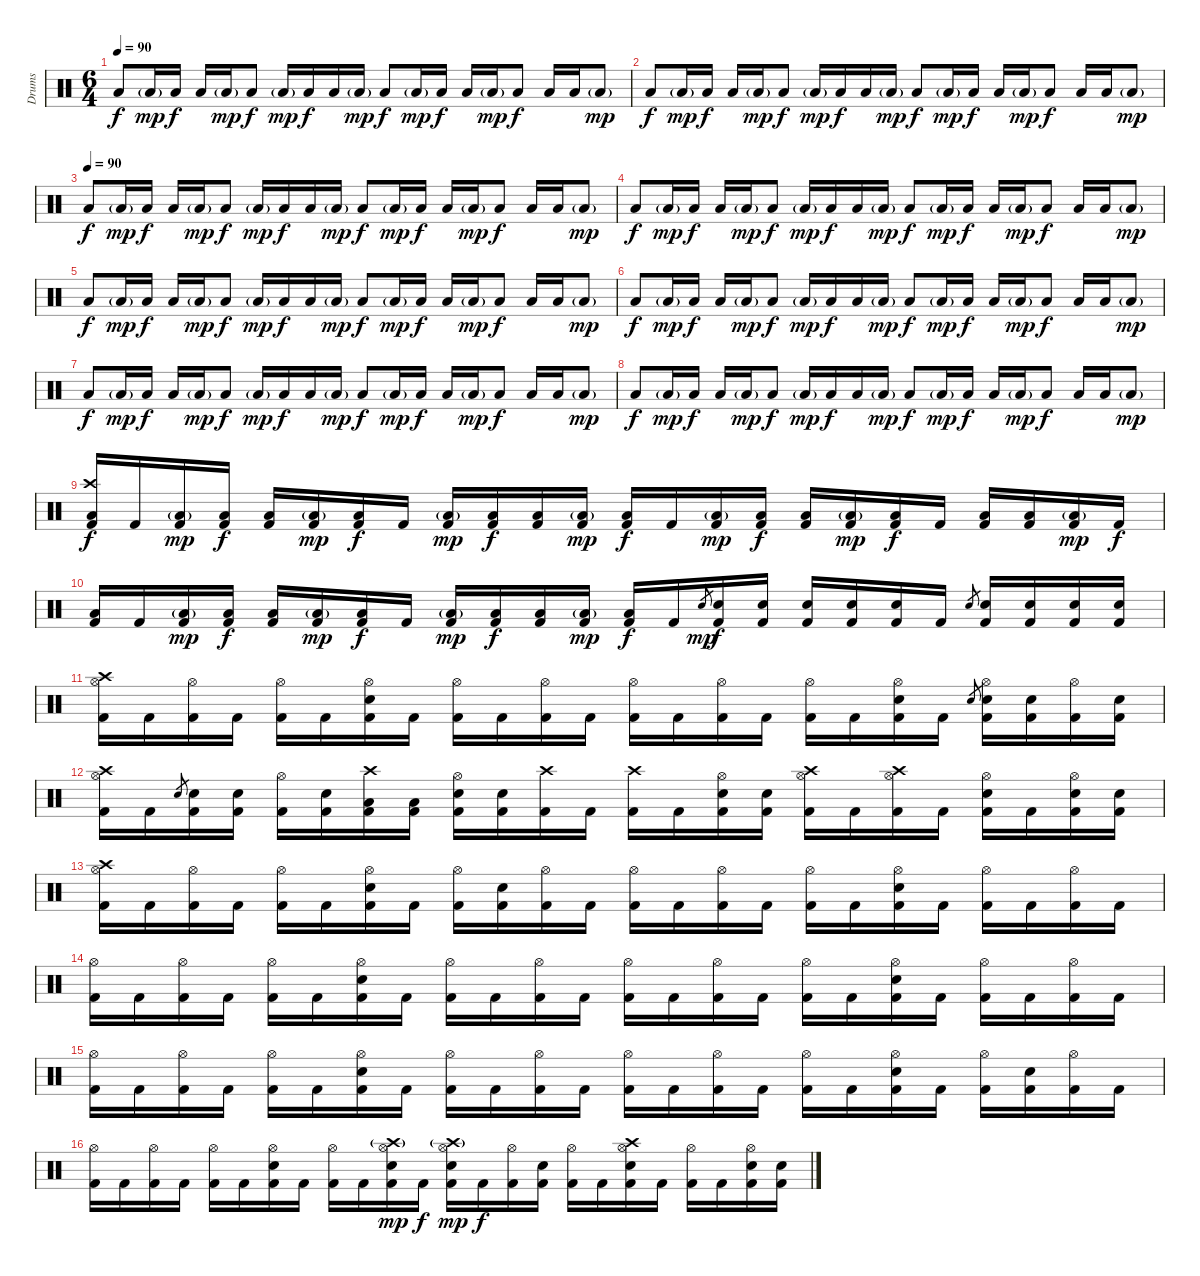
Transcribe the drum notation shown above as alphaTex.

\track ("Drums" "Drums") {instrument percussion}
\staff {score}
\articulation defaults
\ts (6 4)
\tempo 90
\clef neutral
\ks c "Low Floor Tom (hit)".8{dy f} "Low Tom (hit)"{g}.16{dy mp} "Low Floor Tom (hit)".16{dy f} "Low Tom (hit)".16 "Low Floor Tom (hit)"{g}.16{dy mp} "Low Floor Tom (hit)".8{dy f} "Low Tom (hit)"{g}.16{dy mp} "Low Floor Tom (hit)".16{dy f} "Low Tom (hit)".16 "Low Floor Tom (hit)"{g}.16{dy mp} "Low Floor Tom (hit)".8{dy f} "Low Tom (hit)"{g}.16{dy mp} "Low Floor Tom (hit)".16{dy f} "Low Tom (hit)".16 "Low Floor Tom (hit)"{g}.16{dy mp} "Low Floor Tom (hit)".8{dy f} "Low Tom (hit)".16 "Low Floor Tom (hit)".16 "Low Tom (hit)"{g}.8{dy mp}
|
"Low Floor Tom (hit)".8{dy f} "Low Tom (hit)"{g}.16{dy mp} "Low Floor Tom (hit)".16{dy f} "Low Tom (hit)".16 "Low Floor Tom (hit)"{g}.16{dy mp} "Low Floor Tom (hit)".8{dy f} "Low Tom (hit)"{g}.16{dy mp} "Low Floor Tom (hit)".16{dy f} "Low Tom (hit)".16 "Low Floor Tom (hit)"{g}.16{dy mp} "Low Floor Tom (hit)".8{dy f} "Low Tom (hit)"{g}.16{dy mp} "Low Floor Tom (hit)".16{dy f} "Low Tom (hit)".16 "Low Floor Tom (hit)"{g}.16{dy mp} "Low Floor Tom (hit)".8{dy f} "Low Tom (hit)".16 "Low Floor Tom (hit)".16 "Low Tom (hit)"{g}.8{dy mp} |
\tempo (90)
"Low Floor Tom (hit)".8{dy f} "Low Tom (hit)"{g}.16{dy mp} "Low Floor Tom (hit)".16{dy f} "Low Tom (hit)".16 "Low Floor Tom (hit)"{g}.16{dy mp} "Low Floor Tom (hit)".8{dy f} "Low Tom (hit)"{g}.16{dy mp} "Low Floor Tom (hit)".16{dy f} "Low Tom (hit)".16 "Low Floor Tom (hit)"{g}.16{dy mp} "Low Floor Tom (hit)".8{dy f} "Low Tom (hit)"{g}.16{dy mp} "Low Floor Tom (hit)".16{dy f} "Low Tom (hit)".16 "Low Floor Tom (hit)"{g}.16{dy mp} "Low Floor Tom (hit)".8{dy f} "Low Tom (hit)".16 "Low Floor Tom (hit)".16 "Low Tom (hit)"{g}.8{dy mp} |
"Low Floor Tom (hit)".8{dy f} "Low Tom (hit)"{g}.16{dy mp} "Low Floor Tom (hit)".16{dy f} "Low Tom (hit)".16 "Low Floor Tom (hit)"{g}.16{dy mp} "Low Floor Tom (hit)".8{dy f} "Low Tom (hit)"{g}.16{dy mp} "Low Floor Tom (hit)".16{dy f} "Low Tom (hit)".16 "Low Floor Tom (hit)"{g}.16{dy mp} "Low Floor Tom (hit)".8{dy f} "Low Tom (hit)"{g}.16{dy mp} "Low Floor Tom (hit)".16{dy f} "Low Tom (hit)".16 "Low Floor Tom (hit)"{g}.16{dy mp} "Low Floor Tom (hit)".8{dy f} "Low Tom (hit)".16 "Low Floor Tom (hit)".16 "Low Tom (hit)"{g}.8{dy mp} |
"Low Floor Tom (hit)".8{dy f} "Low Tom (hit)"{g}.16{dy mp} "Low Floor Tom (hit)".16{dy f} "Low Tom (hit)".16 "Low Floor Tom (hit)"{g}.16{dy mp} "Low Floor Tom (hit)".8{dy f} "Low Tom (hit)"{g}.16{dy mp} "Low Floor Tom (hit)".16{dy f} "Low Tom (hit)".16 "Low Floor Tom (hit)"{g}.16{dy mp} "Low Floor Tom (hit)".8{dy f} "Low Tom (hit)"{g}.16{dy mp} "Low Floor Tom (hit)".16{dy f} "Low Tom (hit)".16 "Low Floor Tom (hit)"{g}.16{dy mp} "Low Floor Tom (hit)".8{dy f} "Low Tom (hit)".16 "Low Floor Tom (hit)".16 "Low Tom (hit)"{g}.8{dy mp} |
"Low Floor Tom (hit)".8{dy f} "Low Tom (hit)"{g}.16{dy mp} "Low Floor Tom (hit)".16{dy f} "Low Tom (hit)".16 "Low Floor Tom (hit)"{g}.16{dy mp} "Low Floor Tom (hit)".8{dy f} "Low Tom (hit)"{g}.16{dy mp} "Low Floor Tom (hit)".16{dy f} "Low Tom (hit)".16 "Low Floor Tom (hit)"{g}.16{dy mp} "Low Floor Tom (hit)".8{dy f} "Low Tom (hit)"{g}.16{dy mp} "Low Floor Tom (hit)".16{dy f} "Low Tom (hit)".16 "Low Floor Tom (hit)"{g}.16{dy mp} "Low Floor Tom (hit)".8{dy f} "Low Tom (hit)".16 "Low Floor Tom (hit)".16 "Low Tom (hit)"{g}.8{dy mp} |
"Low Floor Tom (hit)".8{dy f} "Low Tom (hit)"{g}.16{dy mp} "Low Floor Tom (hit)".16{dy f} "Low Tom (hit)".16 "Low Floor Tom (hit)"{g}.16{dy mp} "Low Floor Tom (hit)".8{dy f} "Low Tom (hit)"{g}.16{dy mp} "Low Floor Tom (hit)".16{dy f} "Low Tom (hit)".16 "Low Floor Tom (hit)"{g}.16{dy mp} "Low Floor Tom (hit)".8{dy f} "Low Tom (hit)"{g}.16{dy mp} "Low Floor Tom (hit)".16{dy f} "Low Tom (hit)".16 "Low Floor Tom (hit)"{g}.16{dy mp} "Low Floor Tom (hit)".8{dy f} "Low Tom (hit)".16 "Low Floor Tom (hit)".16 "Low Tom (hit)"{g}.8{dy mp} |
"Low Floor Tom (hit)".8{dy f} "Low Tom (hit)"{g}.16{dy mp} "Low Floor Tom (hit)".16{dy f} "Low Tom (hit)".16 "Low Floor Tom (hit)"{g}.16{dy mp} "Low Floor Tom (hit)".8{dy f} "Low Tom (hit)"{g}.16{dy mp} "Low Floor Tom (hit)".16{dy f} "Low Tom (hit)".16 "Low Floor Tom (hit)"{g}.16{dy mp} "Low Floor Tom (hit)".8{dy f} "Low Tom (hit)"{g}.16{dy mp} "Low Floor Tom (hit)".16{dy f} "Low Tom (hit)".16 "Low Floor Tom (hit)"{g}.16{dy mp} "Low Floor Tom (hit)".8{dy f} "Low Tom (hit)".16 "Low Floor Tom (hit)".16 "Low Tom (hit)"{g}.8{dy mp} |
("Crash high (hit)" "Low Floor Tom (hit)" "Kick (hit) 2").16{dy f} "Kick (hit) 2".16 ("Low Tom (hit)"{g} "Kick (hit) 2").16{dy mp} ("Low Floor Tom (hit)" "Kick (hit) 2").16{dy f} ("Low Tom (hit)" "Kick (hit) 2").16 ("Low Floor Tom (hit)"{g} "Kick (hit) 2").16{dy mp} ("Low Floor Tom (hit)" "Kick (hit) 2").16{dy f} "Kick (hit) 2".16 ("Low Tom (hit)"{g} "Kick (hit) 2").16{dy mp} ("Low Floor Tom (hit)" "Kick (hit) 2").16{dy f} ("Low Tom (hit)" "Kick (hit) 2").16 ("Low Floor Tom (hit)"{g} "Kick (hit) 2").16{dy mp} ("Low Floor Tom (hit)" "Kick (hit) 2").16{dy f} "Kick (hit) 2".16 ("Low Tom (hit)"{g} "Kick (hit) 2").16{dy mp} ("Low Floor Tom (hit)" "Kick (hit) 2").16{dy f} ("Low Tom (hit)" "Kick (hit) 2").16 ("Low Floor Tom (hit)"{g} "Kick (hit) 2").16{dy mp} ("Low Floor Tom (hit)" "Kick (hit) 2").16{dy f} "Kick (hit) 2".16 ("Low Tom (hit)" "Kick (hit) 2").16 ("Low Floor Tom (hit)" "Kick (hit) 2").16 ("Low Tom (hit)"{g} "Kick (hit) 2").16{dy mp} "Kick (hit) 2".16{dy f} |
("Low Floor Tom (hit)" "Kick (hit) 2").16 "Kick (hit) 2".16 ("Low Tom (hit)"{g} "Kick (hit) 2").16{dy mp} ("Low Tom (hit)" "Kick (hit) 2").16{dy f} ("Low Tom (hit)" "Kick (hit) 2").16 ("Low Floor Tom (hit)"{g} "Kick (hit) 2").16{dy mp} ("Low Floor Tom (hit)" "Kick (hit) 2").16{dy f} "Kick (hit) 2".16 ("Low Tom (hit)"{g} "Kick (hit) 2").16{dy mp} ("Low Tom (hit)" "Kick (hit) 2").16{dy f} ("Low Tom (hit)" "Kick (hit) 2").16 ("Low Floor Tom (hit)"{g} "Kick (hit) 2").16{dy mp} ("Low Floor Tom (hit)" "Kick (hit) 2").16{dy f} "Kick (hit) 2".16 "Snare (hit) 2".8{gr dy mp} ("Snare (hit) 2" "Kick (hit) 2").16{dy f} ("Snare (hit) 2" "Kick (hit) 2").16 ("Snare (hit) 2" "Kick (hit) 2").16 ("Snare (hit) 2" "Kick (hit) 2").16 ("Snare (hit) 2" "Kick (hit) 2").16 "Kick (hit) 2".16 "Snare (hit) 2".8{gr} ("Snare (hit) 2" "Kick (hit) 2").16 ("Snare (hit) 2" "Kick (hit) 2").16 ("Snare (hit) 2" "Kick (hit) 2").16 ("Snare (hit) 2" "Kick (hit) 2").16 |
("Crash high (hit)" "Hi-Hat (open)" "Kick (hit) 2").16 "Kick (hit) 2".16 ("Hi-Hat (open)" "Kick (hit) 2").16 "Kick (hit) 2".16 ("Hi-Hat (open)" "Kick (hit) 2").16 "Kick (hit) 2".16 ("Hi-Hat (open)" "Snare (hit) 2" "Kick (hit) 2").16 "Kick (hit) 2".16 ("Hi-Hat (open)" "Kick (hit) 2").16 "Kick (hit) 2".16 ("Hi-Hat (open)" "Kick (hit) 2").16 "Kick (hit) 2".16 ("Hi-Hat (open)" "Kick (hit) 2").16 "Kick (hit) 2".16 ("Hi-Hat (open)" "Kick (hit) 2").16 "Kick (hit) 2".16 ("Hi-Hat (open)" "Kick (hit) 2").16 "Kick (hit) 2".16 ("Hi-Hat (open)" "Snare (hit) 2" "Kick (hit) 2").16 "Kick (hit) 2".16 "Snare (hit) 2".8{gr} ("Hi-Hat (open)" "Snare (hit) 2" "Kick (hit) 2").16 ("Snare (hit) 2" "Kick (hit) 2").16 ("Hi-Hat (open)" "Kick (hit) 2").16 ("Snare (hit) 2" "Kick (hit) 2").16 |
("Crash high (hit)" "Hi-Hat (open)" "Kick (hit) 2").16 "Kick (hit) 2".16 "Snare (hit) 2".8{gr} ("Snare (hit) 2" "Kick (hit) 2").16 ("Snare (hit) 2" "Kick (hit) 2").16 ("Hi-Hat (open)" "Kick (hit) 2").16 ("Snare (hit) 2" "Kick (hit) 2").16 ("Crash high (hit)" "Low Tom (hit)" "Kick (hit) 2").16 ("Low Tom (hit)" "Kick (hit) 2").16 ("Hi-Hat (open)" "Snare (hit) 2" "Kick (hit) 2").16 ("Snare (hit) 2" "Kick (hit) 2").16 ("Crash high (hit)" "Kick (hit) 2").16 "Kick (hit) 2".16 ("Crash high (hit)" "Kick (hit) 2").16 "Kick (hit) 2".16 ("Hi-Hat (open)" "Snare (hit) 2" "Kick (hit) 2").16 ("Snare (hit) 2" "Kick (hit) 2").16 ("Crash high (hit)" "Hi-Hat (open)" "Kick (hit) 2").16 "Kick (hit) 2".16 ("Crash high (hit)" "Hi-Hat (open)" "Kick (hit) 2").16 "Kick (hit) 2".16 ("Hi-Hat (open)" "Snare (hit) 2" "Kick (hit) 2").16 "Kick (hit) 2".16 ("Hi-Hat (open)" "Snare (hit) 2" "Kick (hit) 2").16 ("Snare (hit) 2" "Kick (hit) 2").16 |
("Crash high (hit)" "Hi-Hat (open)" "Kick (hit) 2").16 "Kick (hit) 2".16 ("Hi-Hat (open)" "Kick (hit) 2").16 "Kick (hit) 2".16 ("Hi-Hat (open)" "Kick (hit) 2").16 "Kick (hit) 2".16 ("Hi-Hat (open)" "Snare (hit) 2" "Kick (hit) 2").16 "Kick (hit) 2".16 ("Hi-Hat (open)" "Kick (hit) 2").16 ("Snare (hit) 2" "Kick (hit) 2").16 ("Hi-Hat (open)" "Kick (hit) 2").16 "Kick (hit) 2".16 ("Hi-Hat (open)" "Kick (hit) 2").16 "Kick (hit) 2".16 ("Hi-Hat (open)" "Kick (hit) 2").16 "Kick (hit) 2".16 ("Hi-Hat (open)" "Kick (hit) 2").16 "Kick (hit) 2".16 ("Hi-Hat (open)" "Snare (hit) 2" "Kick (hit) 2").16 "Kick (hit) 2".16 ("Hi-Hat (open)" "Kick (hit) 2").16 "Kick (hit) 2".16 ("Hi-Hat (open)" "Kick (hit) 2").16 "Kick (hit) 2".16 |
("Hi-Hat (open)" "Kick (hit) 2").16 "Kick (hit) 2".16 ("Hi-Hat (open)" "Kick (hit) 2").16 "Kick (hit) 2".16 ("Hi-Hat (open)" "Kick (hit) 2").16 "Kick (hit) 2".16 ("Hi-Hat (open)" "Snare (hit) 2" "Kick (hit) 2").16 "Kick (hit) 2".16 ("Hi-Hat (open)" "Kick (hit) 2").16 "Kick (hit) 2".16 ("Hi-Hat (open)" "Kick (hit) 2").16 "Kick (hit) 2".16 ("Hi-Hat (open)" "Kick (hit) 2").16 "Kick (hit) 2".16 ("Hi-Hat (open)" "Kick (hit) 2").16 "Kick (hit) 2".16 ("Hi-Hat (open)" "Kick (hit) 2").16 "Kick (hit) 2".16 ("Hi-Hat (open)" "Snare (hit) 2" "Kick (hit) 2").16 "Kick (hit) 2".16 ("Hi-Hat (open)" "Kick (hit) 2").16 "Kick (hit) 2".16 ("Hi-Hat (open)" "Kick (hit) 2").16 "Kick (hit) 2".16 |
("Hi-Hat (open)" "Kick (hit) 2").16 "Kick (hit) 2".16 ("Hi-Hat (open)" "Kick (hit) 2").16 "Kick (hit) 2".16 ("Hi-Hat (open)" "Kick (hit) 2").16 "Kick (hit) 2".16 ("Hi-Hat (open)" "Snare (hit) 2" "Kick (hit) 2").16 "Kick (hit) 2".16 ("Hi-Hat (open)" "Kick (hit) 2").16 "Kick (hit) 2".16 ("Hi-Hat (open)" "Kick (hit) 2").16 "Kick (hit) 2".16 ("Hi-Hat (open)" "Kick (hit) 2").16 "Kick (hit) 2".16 ("Hi-Hat (open)" "Kick (hit) 2").16 "Kick (hit) 2".16 ("Hi-Hat (open)" "Kick (hit) 2").16 "Kick (hit) 2".16 ("Hi-Hat (open)" "Snare (hit) 2" "Kick (hit) 2").16 "Kick (hit) 2".16 ("Hi-Hat (open)" "Kick (hit) 2").16 ("Snare (hit) 2" "Kick (hit) 2").16 ("Hi-Hat (open)" "Kick (hit) 2").16 "Kick (hit) 2".16 |
("Hi-Hat (open)" "Kick (hit) 2").16 "Kick (hit) 2".16 ("Hi-Hat (open)" "Kick (hit) 2").16 "Kick (hit) 2".16 ("Hi-Hat (open)" "Kick (hit) 2").16 "Kick (hit) 2".16 ("Hi-Hat (open)" "Snare (hit) 2" "Kick (hit) 2").16 "Kick (hit) 2".16 ("Hi-Hat (open)" "Kick (hit) 2").16 "Kick (hit) 2".16 ("Crash high (hit)"{g} "Hi-Hat (open)" "Snare (hit) 2" "Kick (hit) 2").16{dy mp} "Kick (hit) 2".16{dy f} ("Crash high (hit)"{g} "Hi-Hat (open)" "Snare (hit) 2" "Kick (hit) 2").16{dy mp} "Kick (hit) 2".16{dy f} ("Hi-Hat (open)" "Kick (hit) 2").16 ("Snare (hit) 2" "Kick (hit) 2").16 ("Hi-Hat (open)" "Kick (hit) 2").16 "Kick (hit) 2".16 ("Crash high (hit)" "Hi-Hat (open)" "Snare (hit) 2" "Kick (hit) 2").16 "Kick (hit) 2".16 ("Hi-Hat (open)" "Kick (hit) 2").16 "Kick (hit) 2".16 ("Hi-Hat (open)" "Snare (hit) 2" "Kick (hit) 2").16 ("Snare (hit) 2" "Kick (hit) 2").16
